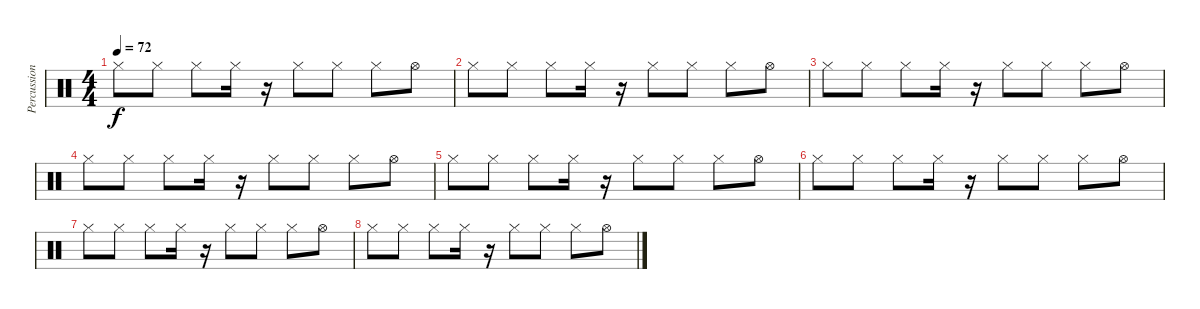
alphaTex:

\track ("Percussions" "Percussion") {instrument percussion}
\staff {score}
\articulation defaults
\ts (4 4)
\tempo 72
\clef neutral
\ks c "Hi-Hat (closed)".8{dy f} "Hi-Hat (closed)".8 "Hi-Hat (closed)".8 "Hi-Hat (closed)".16
r.16 "Hi-Hat (closed)".8 "Hi-Hat (closed)".8 "Hi-Hat (closed)".8 "Hi-Hat (open)".8 |
"Hi-Hat (closed)".8 "Hi-Hat (closed)".8 "Hi-Hat (closed)".8 "Hi-Hat (closed)".16 r.16 "Hi-Hat (closed)".8 "Hi-Hat (closed)".8 "Hi-Hat (closed)".8 "Hi-Hat (open)".8 |
"Hi-Hat (closed)".8 "Hi-Hat (closed)".8 "Hi-Hat (closed)".8 "Hi-Hat (closed)".16 r.16 "Hi-Hat (closed)".8 "Hi-Hat (closed)".8 "Hi-Hat (closed)".8 "Hi-Hat (open)".8 |
"Hi-Hat (closed)".8 "Hi-Hat (closed)".8 "Hi-Hat (closed)".8 "Hi-Hat (closed)".16 r.16 "Hi-Hat (closed)".8 "Hi-Hat (closed)".8 "Hi-Hat (closed)".8 "Hi-Hat (open)".8 |
"Hi-Hat (closed)".8 "Hi-Hat (closed)".8 "Hi-Hat (closed)".8 "Hi-Hat (closed)".16 r.16 "Hi-Hat (closed)".8 "Hi-Hat (closed)".8 "Hi-Hat (closed)".8 "Hi-Hat (open)".8 |
"Hi-Hat (closed)".8 "Hi-Hat (closed)".8 "Hi-Hat (closed)".8 "Hi-Hat (closed)".16 r.16 "Hi-Hat (closed)".8 "Hi-Hat (closed)".8 "Hi-Hat (closed)".8 "Hi-Hat (open)".8 |
"Hi-Hat (closed)".8{volume 5} "Hi-Hat (closed)".8 "Hi-Hat (closed)".8 "Hi-Hat (closed)".16 r.16 "Hi-Hat (closed)".8 "Hi-Hat (closed)".8 "Hi-Hat (closed)".8 "Hi-Hat (open)".8 |
"Hi-Hat (closed)".8 "Hi-Hat (closed)".8 "Hi-Hat (closed)".8 "Hi-Hat (closed)".16 r.16 "Hi-Hat (closed)".8 "Hi-Hat (closed)".8 "Hi-Hat (closed)".8 "Hi-Hat (open)".8
